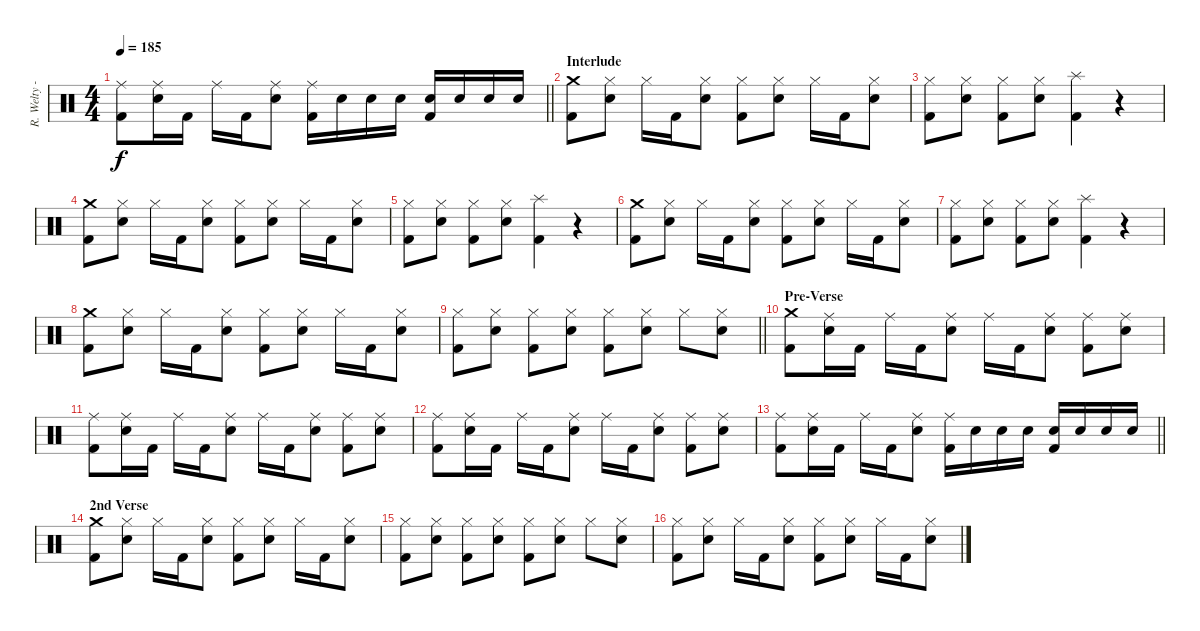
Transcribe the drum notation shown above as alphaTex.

\track ("R. Welty - Drums" "R. Welty -") {instrument percussion}
\staff {score}
\articulation defaults
\ts (4 4)
\tempo 185
\clef neutral
\barLineRight lightlight
\ks c
("Ride (middle)" "Kick (hit) 2").8{dy f} ("Ride (middle)" "Electric Snare (hit)").16 "Kick (hit) 2".16 "Ride (middle)".16 "Kick (hit) 2".16 ("Ride (middle)" "Electric Snare (hit)").8 ("Ride (middle)" "Kick (hit) 2").16 "Electric Snare (hit)".16 "Electric Snare (hit)".16 "Electric Snare (hit)".16 ("Electric Snare (hit)" "Kick (hit) 2").16 "Electric Snare (hit)".16 "Electric Snare (hit)".16 "Electric Snare (hit)".16 |
\section ("" "Interlude")
("Crash medium (hit)" "Kick (hit) 2").8 ("Hi-Hat (closed)" "Electric Snare (hit)").8 "Hi-Hat (closed)".16 "Kick (hit) 2".16 ("Hi-Hat (closed)" "Electric Snare (hit)").8 ("Hi-Hat (closed)" "Kick (hit) 2").8 ("Hi-Hat (closed)" "Electric Snare (hit)").8 "Hi-Hat (closed)".16 "Kick (hit) 2".16 ("Hi-Hat (closed)" "Electric Snare (hit)").8 |
("Hi-Hat (closed)" "Kick (hit) 2").8 ("Hi-Hat (closed)" "Electric Snare (hit)").8 ("Hi-Hat (closed)" "Kick (hit) 2").8 ("Hi-Hat (closed)" "Electric Snare (hit)").8 ("Splash (hit)" "Kick (hit) 2").4 r.4 |
("Crash medium (hit)" "Kick (hit) 2").8 ("Hi-Hat (closed)" "Electric Snare (hit)").8 "Hi-Hat (closed)".16 "Kick (hit) 2".16 ("Hi-Hat (closed)" "Electric Snare (hit)").8 ("Hi-Hat (closed)" "Kick (hit) 2").8 ("Hi-Hat (closed)" "Electric Snare (hit)").8 "Hi-Hat (closed)".16 "Kick (hit) 2".16 ("Hi-Hat (closed)" "Electric Snare (hit)").8 |
("Hi-Hat (closed)" "Kick (hit) 2").8 ("Hi-Hat (closed)" "Electric Snare (hit)").8 ("Hi-Hat (closed)" "Kick (hit) 2").8 ("Hi-Hat (closed)" "Electric Snare (hit)").8 ("Splash (hit)" "Kick (hit) 2").4 r.4 |
("Crash medium (hit)" "Kick (hit) 2").8 ("Hi-Hat (closed)" "Electric Snare (hit)").8 "Hi-Hat (closed)".16 "Kick (hit) 2".16 ("Hi-Hat (closed)" "Electric Snare (hit)").8 ("Hi-Hat (closed)" "Kick (hit) 2").8 ("Hi-Hat (closed)" "Electric Snare (hit)").8 "Hi-Hat (closed)".16 "Kick (hit) 2".16 ("Hi-Hat (closed)" "Electric Snare (hit)").8 |
("Hi-Hat (closed)" "Kick (hit) 2").8 ("Hi-Hat (closed)" "Electric Snare (hit)").8 ("Hi-Hat (closed)" "Kick (hit) 2").8 ("Hi-Hat (closed)" "Electric Snare (hit)").8 ("Splash (hit)" "Kick (hit) 2").4 r.4 |
("Crash medium (hit)" "Kick (hit) 2").8 ("Hi-Hat (closed)" "Electric Snare (hit)").8 "Hi-Hat (closed)".16 "Kick (hit) 2".16 ("Hi-Hat (closed)" "Electric Snare (hit)").8 ("Hi-Hat (closed)" "Kick (hit) 2").8 ("Hi-Hat (closed)" "Electric Snare (hit)").8 "Hi-Hat (closed)".16 "Kick (hit) 2".16 ("Hi-Hat (closed)" "Electric Snare (hit)").8 |
\barLineRight lightlight
("Hi-Hat (closed)" "Kick (hit) 2").8 ("Hi-Hat (closed)" "Electric Snare (hit)").8 ("Hi-Hat (closed)" "Kick (hit) 2").8 ("Hi-Hat (closed)" "Electric Snare (hit)").8 ("Hi-Hat (closed)" "Kick (hit) 2").8 ("Hi-Hat (closed)" "Electric Snare (hit)").8 "Hi-Hat (closed)".8 ("Hi-Hat (closed)" "Electric Snare (hit)").8 |
\section ("" "Pre-Verse")
("Crash medium (hit)" "Kick (hit) 2").8 ("Ride (middle)" "Electric Snare (hit)").16 "Kick (hit) 2".16 "Ride (middle)".16 "Kick (hit) 2".16 ("Ride (middle)" "Electric Snare (hit)").8 "Ride (middle)".16 "Kick (hit) 2".16 ("Ride (middle)" "Electric Snare (hit)").8 ("Ride (middle)" "Kick (hit) 2").8 ("Ride (middle)" "Electric Snare (hit)").8 |
("Ride (middle)" "Kick (hit) 2").8 ("Ride (middle)" "Electric Snare (hit)").16 "Kick (hit) 2".16 "Ride (middle)".16 "Kick (hit) 2".16 ("Ride (middle)" "Electric Snare (hit)").8 "Ride (middle)".16 "Kick (hit) 2".16 ("Ride (middle)" "Electric Snare (hit)").8 ("Ride (middle)" "Kick (hit) 2").8 ("Ride (middle)" "Electric Snare (hit)").8 |
("Ride (middle)" "Kick (hit) 2").8 ("Ride (middle)" "Electric Snare (hit)").16 "Kick (hit) 2".16 "Ride (middle)".16 "Kick (hit) 2".16 ("Ride (middle)" "Electric Snare (hit)").8 "Ride (middle)".16 "Kick (hit) 2".16 ("Ride (middle)" "Electric Snare (hit)").8 ("Ride (middle)" "Kick (hit) 2").8 ("Ride (middle)" "Electric Snare (hit)").8 |
\barLineRight lightlight
("Ride (middle)" "Kick (hit) 2").8 ("Ride (middle)" "Electric Snare (hit)").16 "Kick (hit) 2".16 "Ride (middle)".16 "Kick (hit) 2".16 ("Ride (middle)" "Electric Snare (hit)").8 ("Ride (middle)" "Kick (hit) 2").16 "Electric Snare (hit)".16 "Electric Snare (hit)".16 "Electric Snare (hit)".16 ("Electric Snare (hit)" "Kick (hit) 2").16 "Electric Snare (hit)".16 "Electric Snare (hit)".16 "Electric Snare (hit)".16 |
\section ("" "2nd Verse")
("Crash medium (hit)" "Kick (hit) 2").8 ("Hi-Hat (closed)" "Electric Snare (hit)").8 "Hi-Hat (closed)".16 "Kick (hit) 2".16 ("Hi-Hat (closed)" "Electric Snare (hit)").8 ("Hi-Hat (closed)" "Kick (hit) 2").8 ("Hi-Hat (closed)" "Electric Snare (hit)").8 "Hi-Hat (closed)".16 "Kick (hit) 2".16 ("Hi-Hat (closed)" "Electric Snare (hit)").8 |
("Hi-Hat (closed)" "Kick (hit) 2").8 ("Hi-Hat (closed)" "Electric Snare (hit)").8 ("Hi-Hat (closed)" "Kick (hit) 2").8 ("Hi-Hat (closed)" "Electric Snare (hit)").8 ("Hi-Hat (closed)" "Kick (hit) 2").8 ("Hi-Hat (closed)" "Electric Snare (hit)").8 "Hi-Hat (closed)".8 ("Hi-Hat (closed)" "Electric Snare (hit)").8 |
("Hi-Hat (closed)" "Kick (hit) 2").8 ("Hi-Hat (closed)" "Electric Snare (hit)").8 "Hi-Hat (closed)".16 "Kick (hit) 2".16 ("Hi-Hat (closed)" "Electric Snare (hit)").8 ("Hi-Hat (closed)" "Kick (hit) 2").8 ("Hi-Hat (closed)" "Electric Snare (hit)").8 "Hi-Hat (closed)".16 "Kick (hit) 2".16 ("Hi-Hat (closed)" "Electric Snare (hit)").8
